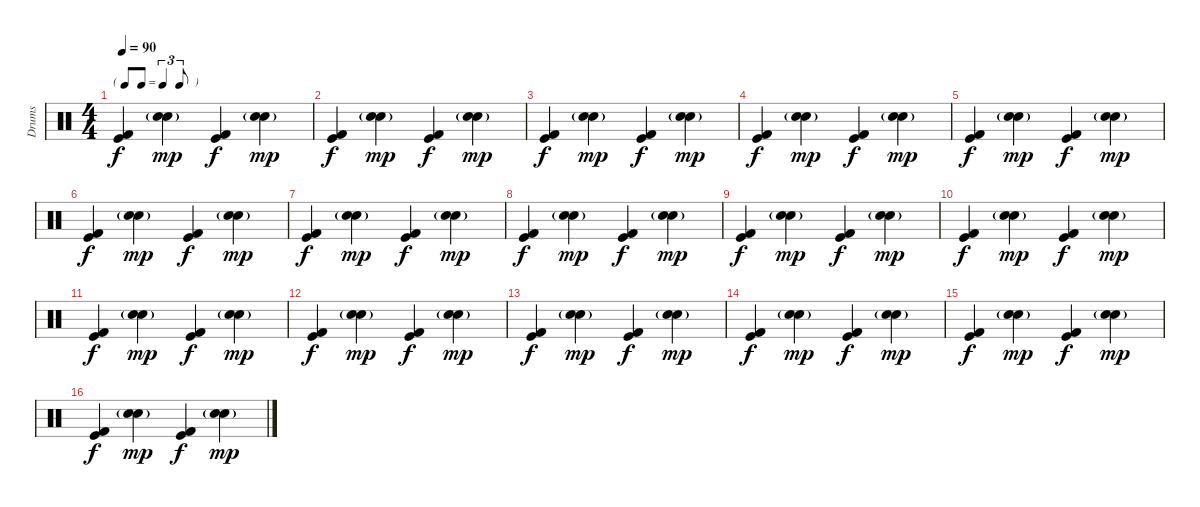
\track ("Drums" "Drums") {instrument percussion}
\staff {score}
\articulation defaults
\ts (4 4)
\tf triplet8th
\tempo 90
\clef neutral
\ks c
("Kick (hit)" "Kick (hit) 2").4{dy f} ("Snare (hit) 2" "Hand Clap (hit)"{g}).4{dy mp} ("Kick (hit)" "Kick (hit) 2").4{dy f} ("Snare (hit) 2" "Hand Clap (hit)"{g}).4{dy mp} |
("Kick (hit)" "Kick (hit) 2").4{dy f} ("Snare (hit) 2" "Hand Clap (hit)"{g}).4{dy mp} ("Kick (hit)" "Kick (hit) 2").4{dy f} ("Snare (hit) 2" "Hand Clap (hit)"{g}).4{dy mp} |
("Kick (hit)" "Kick (hit) 2").4{dy f} ("Snare (hit) 2" "Hand Clap (hit)"{g}).4{dy mp} ("Kick (hit)" "Kick (hit) 2").4{dy f} ("Snare (hit) 2" "Hand Clap (hit)"{g}).4{dy mp} |
("Kick (hit)" "Kick (hit) 2").4{dy f} ("Snare (hit) 2" "Hand Clap (hit)"{g}).4{dy mp} ("Kick (hit)" "Kick (hit) 2").4{dy f} ("Snare (hit) 2" "Hand Clap (hit)"{g}).4{dy mp} |
("Kick (hit)" "Kick (hit) 2").4{dy f} ("Snare (hit) 2" "Hand Clap (hit)"{g}).4{dy mp} ("Kick (hit)" "Kick (hit) 2").4{dy f} ("Snare (hit) 2" "Hand Clap (hit)"{g}).4{dy mp} |
("Kick (hit)" "Kick (hit) 2").4{dy f} ("Snare (hit) 2" "Hand Clap (hit)"{g}).4{dy mp} ("Kick (hit)" "Kick (hit) 2").4{dy f} ("Snare (hit) 2" "Hand Clap (hit)"{g}).4{dy mp} |
("Kick (hit)" "Kick (hit) 2").4{dy f} ("Snare (hit) 2" "Hand Clap (hit)"{g}).4{dy mp} ("Kick (hit)" "Kick (hit) 2").4{dy f} ("Snare (hit) 2" "Hand Clap (hit)"{g}).4{dy mp} |
("Kick (hit)" "Kick (hit) 2").4{dy f} ("Snare (hit) 2" "Hand Clap (hit)"{g}).4{dy mp} ("Kick (hit)" "Kick (hit) 2").4{dy f} ("Snare (hit) 2" "Hand Clap (hit)"{g}).4{dy mp} |
("Kick (hit)" "Kick (hit) 2").4{dy f} ("Snare (hit) 2" "Hand Clap (hit)"{g}).4{dy mp} ("Kick (hit)" "Kick (hit) 2").4{dy f} ("Snare (hit) 2" "Hand Clap (hit)"{g}).4{dy mp} |
("Kick (hit)" "Kick (hit) 2").4{dy f} ("Snare (hit) 2" "Hand Clap (hit)"{g}).4{dy mp} ("Kick (hit)" "Kick (hit) 2").4{dy f} ("Snare (hit) 2" "Hand Clap (hit)"{g}).4{dy mp} |
("Kick (hit)" "Kick (hit) 2").4{dy f} ("Snare (hit) 2" "Hand Clap (hit)"{g}).4{dy mp} ("Kick (hit)" "Kick (hit) 2").4{dy f} ("Snare (hit) 2" "Hand Clap (hit)"{g}).4{dy mp} |
("Kick (hit)" "Kick (hit) 2").4{dy f} ("Snare (hit) 2" "Hand Clap (hit)"{g}).4{dy mp} ("Kick (hit)" "Kick (hit) 2").4{dy f} ("Snare (hit) 2" "Hand Clap (hit)"{g}).4{dy mp} |
("Kick (hit)" "Kick (hit) 2").4{dy f} ("Snare (hit) 2" "Hand Clap (hit)"{g}).4{dy mp} ("Kick (hit)" "Kick (hit) 2").4{dy f} ("Snare (hit) 2" "Hand Clap (hit)"{g}).4{dy mp} |
("Kick (hit)" "Kick (hit) 2").4{dy f} ("Snare (hit) 2" "Hand Clap (hit)"{g}).4{dy mp} ("Kick (hit)" "Kick (hit) 2").4{dy f} ("Snare (hit) 2" "Hand Clap (hit)"{g}).4{dy mp} |
("Kick (hit)" "Kick (hit) 2").4{dy f} ("Snare (hit) 2" "Hand Clap (hit)"{g}).4{dy mp} ("Kick (hit)" "Kick (hit) 2").4{dy f} ("Snare (hit) 2" "Hand Clap (hit)"{g}).4{dy mp} |
("Kick (hit)" "Kick (hit) 2").4{dy f} ("Snare (hit) 2" "Hand Clap (hit)"{g}).4{dy mp} ("Kick (hit)" "Kick (hit) 2").4{dy f} ("Snare (hit) 2" "Hand Clap (hit)"{g}).4{dy mp}
